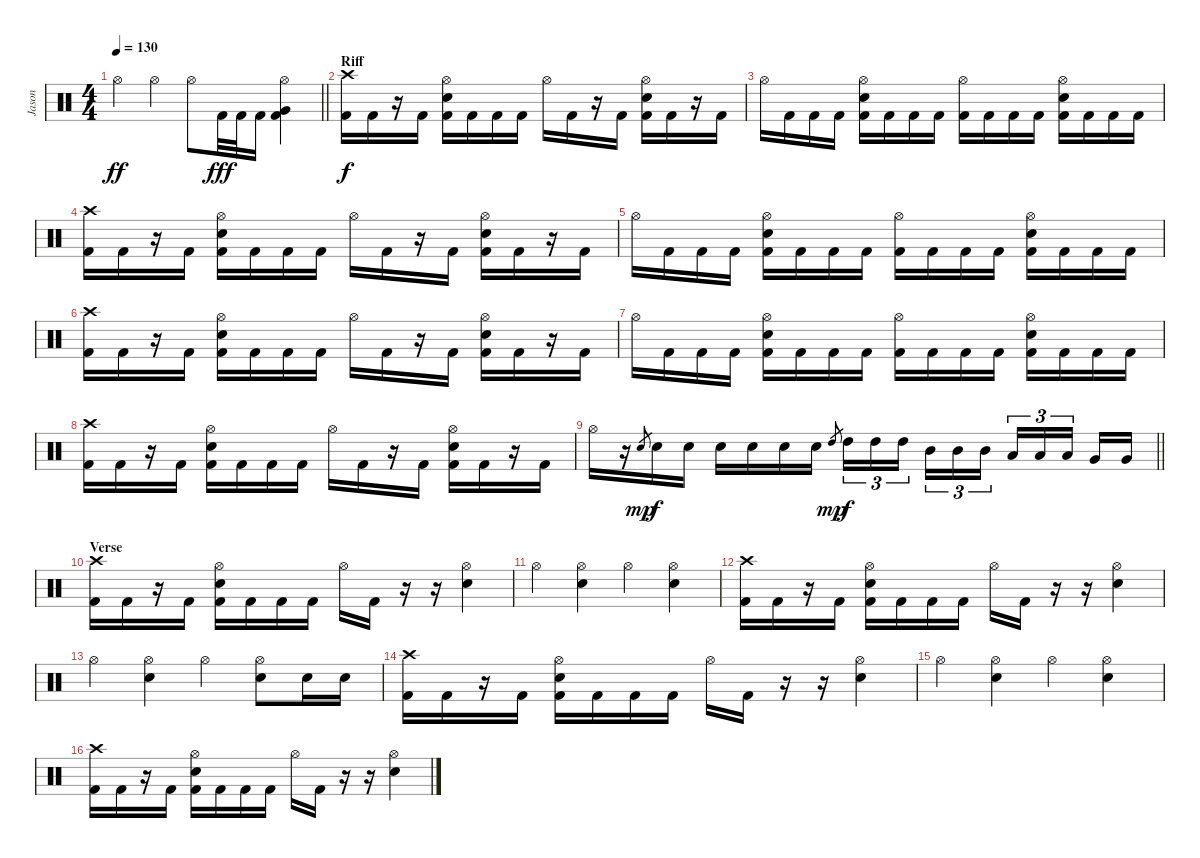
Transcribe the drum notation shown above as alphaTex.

\track ("Jason" "Jason") {instrument percussion}
\staff {score}
\articulation defaults
\ts (4 4)
\tempo 130
\clef neutral
\barLineRight lightlight
\ks c "Hi-Hat (open)".4{dy ff} "Hi-Hat (open)".4 "Hi-Hat (open)".8 "Kick (hit) 2".32{dy fff} "Kick (hit) 2".32 "Kick (hit) 2".16
("Hi-Hat (open)" "Very Low Tom (hit)" "Kick (hit) 2").4 |
\section ("" "Riff")
("Crash high (hit)" "Kick (hit) 2").16{dy f} "Kick (hit) 2".16 r.16 "Kick (hit) 2".16 ("Hi-Hat (open)" "Electric Snare (hit)" "Kick (hit) 2").16 "Kick (hit) 2".16 "Kick (hit) 2".16 "Kick (hit) 2".16 "Hi-Hat (open)".16 "Kick (hit) 2".16 r.16 "Kick (hit) 2".16 ("Hi-Hat (open)" "Electric Snare (hit)" "Kick (hit) 2").16 "Kick (hit) 2".16 r.16 "Kick (hit) 2".16 |
"Hi-Hat (open)".16 "Kick (hit) 2".16 "Kick (hit) 2".16 "Kick (hit) 2".16 ("Hi-Hat (open)" "Electric Snare (hit)" "Kick (hit) 2").16 "Kick (hit) 2".16 "Kick (hit) 2".16 "Kick (hit) 2".16 ("Hi-Hat (open)" "Kick (hit) 2").16 "Kick (hit) 2".16 "Kick (hit) 2".16 "Kick (hit) 2".16 ("Hi-Hat (open)" "Electric Snare (hit)" "Kick (hit) 2").16 "Kick (hit) 2".16 "Kick (hit) 2".16 "Kick (hit) 2".16 |
("Crash high (hit)" "Kick (hit) 2").16 "Kick (hit) 2".16 r.16 "Kick (hit) 2".16 ("Hi-Hat (open)" "Electric Snare (hit)" "Kick (hit) 2").16 "Kick (hit) 2".16 "Kick (hit) 2".16 "Kick (hit) 2".16 "Hi-Hat (open)".16 "Kick (hit) 2".16 r.16 "Kick (hit) 2".16 ("Hi-Hat (open)" "Electric Snare (hit)" "Kick (hit) 2").16 "Kick (hit) 2".16 r.16 "Kick (hit) 2".16 |
"Hi-Hat (open)".16 "Kick (hit) 2".16 "Kick (hit) 2".16 "Kick (hit) 2".16 ("Hi-Hat (open)" "Electric Snare (hit)" "Kick (hit) 2").16 "Kick (hit) 2".16 "Kick (hit) 2".16 "Kick (hit) 2".16 ("Hi-Hat (open)" "Kick (hit) 2").16 "Kick (hit) 2".16 "Kick (hit) 2".16 "Kick (hit) 2".16 ("Hi-Hat (open)" "Electric Snare (hit)" "Kick (hit) 2").16 "Kick (hit) 2".16 "Kick (hit) 2".16 "Kick (hit) 2".16 |
("Crash high (hit)" "Kick (hit) 2").16 "Kick (hit) 2".16 r.16 "Kick (hit) 2".16 ("Hi-Hat (open)" "Electric Snare (hit)" "Kick (hit) 2").16 "Kick (hit) 2".16 "Kick (hit) 2".16 "Kick (hit) 2".16 "Hi-Hat (open)".16 "Kick (hit) 2".16 r.16 "Kick (hit) 2".16 ("Hi-Hat (open)" "Electric Snare (hit)" "Kick (hit) 2").16 "Kick (hit) 2".16 r.16 "Kick (hit) 2".16 |
"Hi-Hat (open)".16 "Kick (hit) 2".16 "Kick (hit) 2".16 "Kick (hit) 2".16 ("Hi-Hat (open)" "Electric Snare (hit)" "Kick (hit) 2").16 "Kick (hit) 2".16 "Kick (hit) 2".16 "Kick (hit) 2".16 ("Hi-Hat (open)" "Kick (hit) 2").16 "Kick (hit) 2".16 "Kick (hit) 2".16 "Kick (hit) 2".16 ("Hi-Hat (open)" "Electric Snare (hit)" "Kick (hit) 2").16 "Kick (hit) 2".16 "Kick (hit) 2".16 "Kick (hit) 2".16 |
("Crash high (hit)" "Kick (hit) 2").16 "Kick (hit) 2".16 r.16 "Kick (hit) 2".16 ("Hi-Hat (open)" "Electric Snare (hit)" "Kick (hit) 2").16 "Kick (hit) 2".16 "Kick (hit) 2".16 "Kick (hit) 2".16 "Hi-Hat (open)".16 "Kick (hit) 2".16 r.16 "Kick (hit) 2".16 ("Hi-Hat (open)" "Electric Snare (hit)" "Kick (hit) 2").16 "Kick (hit) 2".16 r.16 "Kick (hit) 2".16 |
\barLineRight lightlight "Hi-Hat (open)".16
r.16 "Electric Snare (hit)".8{gr dy mp} "Electric Snare (hit)".16{dy f} "Electric Snare (hit)".16 "Electric Snare (hit)".16 "Electric Snare (hit)".16 "Electric Snare (hit)".16 "Electric Snare (hit)".16 "High Tom (hit)".8{gr dy mp} "High Tom (hit)".16{tu (3 2) dy f} "High Tom (hit)".16{tu (3 2)} "High Tom (hit)".16{tu (3 2) beam splitsecondary} "Mid Tom (hit)".16{tu (3 2)} "Mid Tom (hit)".16{tu (3 2)} "Mid Tom (hit)".16{tu (3 2)} "Low Tom (hit)".16{tu (3 2)} "Low Tom (hit)".16{tu (3 2)} "Low Tom (hit)".16{tu (3 2) beam splitsecondary} "Very Low Tom (hit)".16 "Very Low Tom (hit)".16 |
\section ("" "Verse")
("Crash high (hit)" "Kick (hit) 2").16 "Kick (hit) 2".16 r.16 "Kick (hit) 2".16 ("Hi-Hat (open)" "Electric Snare (hit)" "Kick (hit) 2").16 "Kick (hit) 2".16 "Kick (hit) 2".16 "Kick (hit) 2".16 "Hi-Hat (open)".16 "Kick (hit) 2".16 r.16 r.16 ("Hi-Hat (open)" "Electric Snare (hit)").4 |
"Hi-Hat (open)".4 ("Hi-Hat (open)" "Electric Snare (hit)").4 "Hi-Hat (open)".4 ("Hi-Hat (open)" "Electric Snare (hit)").4 |
("Crash high (hit)" "Kick (hit) 2").16 "Kick (hit) 2".16 r.16 "Kick (hit) 2".16 ("Hi-Hat (open)" "Electric Snare (hit)" "Kick (hit) 2").16 "Kick (hit) 2".16 "Kick (hit) 2".16 "Kick (hit) 2".16 "Hi-Hat (open)".16 "Kick (hit) 2".16 r.16 r.16 ("Hi-Hat (open)" "Electric Snare (hit)").4 |
"Hi-Hat (open)".4 ("Hi-Hat (open)" "Electric Snare (hit)").4 "Hi-Hat (open)".4 ("Hi-Hat (open)" "Electric Snare (hit)").8 "Electric Snare (hit)".16 "Electric Snare (hit)".16 |
("Crash high (hit)" "Kick (hit) 2").16 "Kick (hit) 2".16 r.16 "Kick (hit) 2".16 ("Hi-Hat (open)" "Electric Snare (hit)" "Kick (hit) 2").16 "Kick (hit) 2".16 "Kick (hit) 2".16 "Kick (hit) 2".16 "Hi-Hat (open)".16 "Kick (hit) 2".16 r.16 r.16 ("Hi-Hat (open)" "Electric Snare (hit)").4 |
"Hi-Hat (open)".4 ("Hi-Hat (open)" "Electric Snare (hit)").4 "Hi-Hat (open)".4 ("Hi-Hat (open)" "Electric Snare (hit)").4 |
("Crash high (hit)" "Kick (hit) 2").16 "Kick (hit) 2".16 r.16 "Kick (hit) 2".16 ("Hi-Hat (open)" "Electric Snare (hit)" "Kick (hit) 2").16 "Kick (hit) 2".16 "Kick (hit) 2".16 "Kick (hit) 2".16 "Hi-Hat (open)".16 "Kick (hit) 2".16 r.16 r.16 ("Hi-Hat (open)" "Electric Snare (hit)").4
